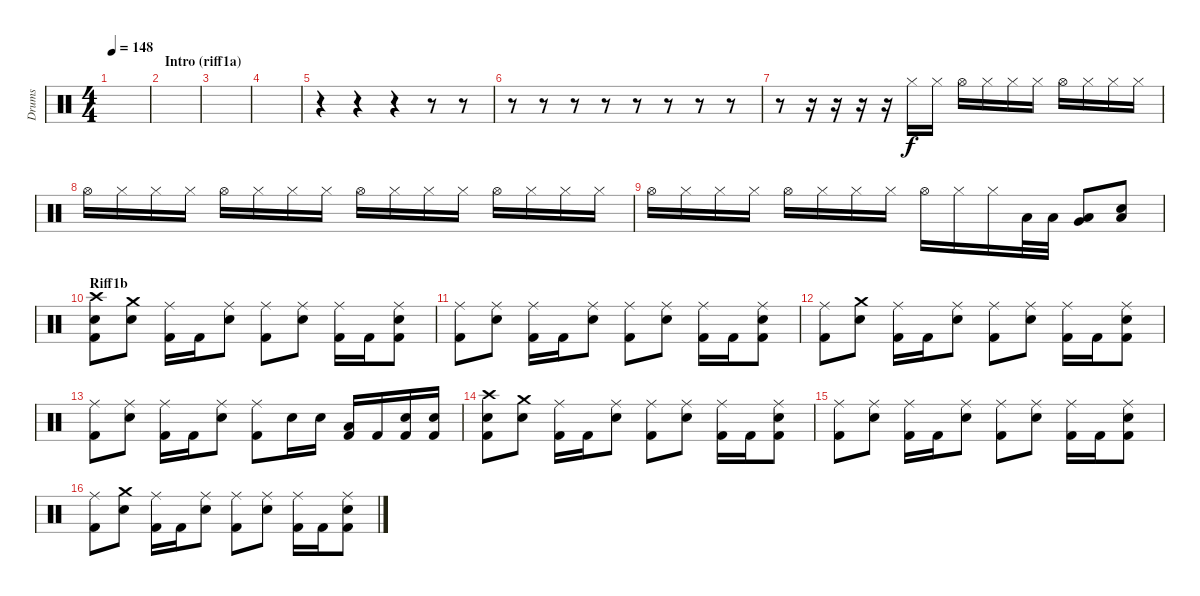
\track ("Drums" "Drums") {instrument percussion}
\staff {score}
\articulation defaults
\ts (4 4)
\tempo 148
\clef neutral
\ks c
|
\section ("" "Intro (riff1a)")
|
|
|
r.4 r.4 r.4 r.8 r.8 |
r.8 r.8 r.8 r.8 r.8 r.8 r.8 r.8 |
r.8 r.16 r.16 r.16 r.16 "Hi-Hat (closed)".16 "Hi-Hat (closed)".16 "Hi-Hat (open)".16 "Hi-Hat (closed)".16 "Hi-Hat (closed)".16 "Hi-Hat (closed)".16 "Hi-Hat (open)".16 "Hi-Hat (closed)".16 "Hi-Hat (closed)".16 "Hi-Hat (closed)".16 |
"Hi-Hat (open)".16 "Hi-Hat (closed)".16 "Hi-Hat (closed)".16 "Hi-Hat (closed)".16 "Hi-Hat (open)".16 "Hi-Hat (closed)".16 "Hi-Hat (closed)".16 "Hi-Hat (closed)".16 "Hi-Hat (open)".16 "Hi-Hat (closed)".16 "Hi-Hat (closed)".16 "Hi-Hat (closed)".16 "Hi-Hat (open)".16 "Hi-Hat (closed)".16 "Hi-Hat (closed)".16 "Hi-Hat (closed)".16 |
"Hi-Hat (open)".16 "Hi-Hat (closed)".16 "Hi-Hat (closed)".16 "Hi-Hat (closed)".16 "Hi-Hat (open)".16 "Hi-Hat (closed)".16 "Hi-Hat (closed)".16 "Hi-Hat (closed)".16 "Hi-Hat (open)".16 "Hi-Hat (closed)".16 "Hi-Hat (closed)".16 "Low Tom (hit)".32 "Low Tom (hit)".32 ("Very Low Tom (hit)" "Low Tom (hit)").8 ("Electric Snare (hit)" "Low Floor Tom (hit)").8 |
\section ("" "Riff1b")
("Kick (hit) 2" "Electric Snare (hit)" "Crash high (hit)").8 ("Electric Snare (hit)" "Crash medium (hit)").8 ("Kick (hit) 2" "Ride (middle)").16 "Kick (hit) 2".16 ("Electric Snare (hit)" "Ride (middle)").8 ("Kick (hit) 2" "Ride (middle)").8 ("Electric Snare (hit)" "Ride (middle)").8 ("Kick (hit) 2" "Ride (middle)").16 "Kick (hit) 2".16 ("Kick (hit) 2" "Electric Snare (hit)" "Ride (middle)").8 |
("Kick (hit) 2" "Ride (middle)").8 ("Electric Snare (hit)" "Ride (middle)").8 ("Kick (hit) 2" "Ride (middle)").16 "Kick (hit) 2".16 ("Electric Snare (hit)" "Ride (middle)").8 ("Kick (hit) 2" "Ride (middle)").8 ("Electric Snare (hit)" "Ride (middle)").8 ("Kick (hit) 2" "Ride (middle)").16 "Kick (hit) 2".16 ("Kick (hit) 2" "Electric Snare (hit)" "Ride (middle)").8 |
("Kick (hit) 2" "Ride (middle)").8 ("Electric Snare (hit)" "Crash medium (hit)").8 ("Kick (hit) 2" "Ride (middle)").16 "Kick (hit) 2".16 ("Electric Snare (hit)" "Ride (middle)").8 ("Kick (hit) 2" "Ride (middle)").8 ("Electric Snare (hit)" "Ride (middle)").8 ("Kick (hit) 2" "Ride (middle)").16 "Kick (hit) 2".16 ("Kick (hit) 2" "Electric Snare (hit)" "Ride (middle)").8 |
("Kick (hit) 2" "Ride (middle)").8 ("Electric Snare (hit)" "Ride (middle)").8 ("Kick (hit) 2" "Ride (middle)").16 "Kick (hit) 2".16 ("Electric Snare (hit)" "Ride (middle)").8 ("Kick (hit) 2" "Ride (middle)").8 "Electric Snare (hit)".16 "Electric Snare (hit)".16 ("Kick (hit) 2" "Low Tom (hit)").16 "Kick (hit) 2".16 ("Kick (hit) 2" "Electric Snare (hit)").16 ("Kick (hit) 2" "Electric Snare (hit)").16 |
("Kick (hit) 2" "Electric Snare (hit)" "Crash high (hit)").8 ("Electric Snare (hit)" "Crash medium (hit)").8 ("Kick (hit) 2" "Ride (middle)").16 "Kick (hit) 2".16 ("Electric Snare (hit)" "Ride (middle)").8 ("Kick (hit) 2" "Ride (middle)").8 ("Electric Snare (hit)" "Ride (middle)").8 ("Kick (hit) 2" "Ride (middle)").16 "Kick (hit) 2".16 ("Kick (hit) 2" "Electric Snare (hit)" "Ride (middle)").8 |
("Kick (hit) 2" "Ride (middle)").8 ("Electric Snare (hit)" "Ride (middle)").8 ("Kick (hit) 2" "Ride (middle)").16 "Kick (hit) 2".16 ("Electric Snare (hit)" "Ride (middle)").8 ("Kick (hit) 2" "Ride (middle)").8 ("Electric Snare (hit)" "Ride (middle)").8 ("Kick (hit) 2" "Ride (middle)").16 "Kick (hit) 2".16 ("Kick (hit) 2" "Electric Snare (hit)" "Ride (middle)").8 |
("Kick (hit) 2" "Ride (middle)").8 ("Electric Snare (hit)" "Crash medium (hit)").8 ("Kick (hit) 2" "Ride (middle)").16 "Kick (hit) 2".16 ("Electric Snare (hit)" "Ride (middle)").8 ("Kick (hit) 2" "Ride (middle)").8 ("Electric Snare (hit)" "Ride (middle)").8 ("Kick (hit) 2" "Ride (middle)").16 "Kick (hit) 2".16 ("Kick (hit) 2" "Electric Snare (hit)" "Ride (middle)").8
